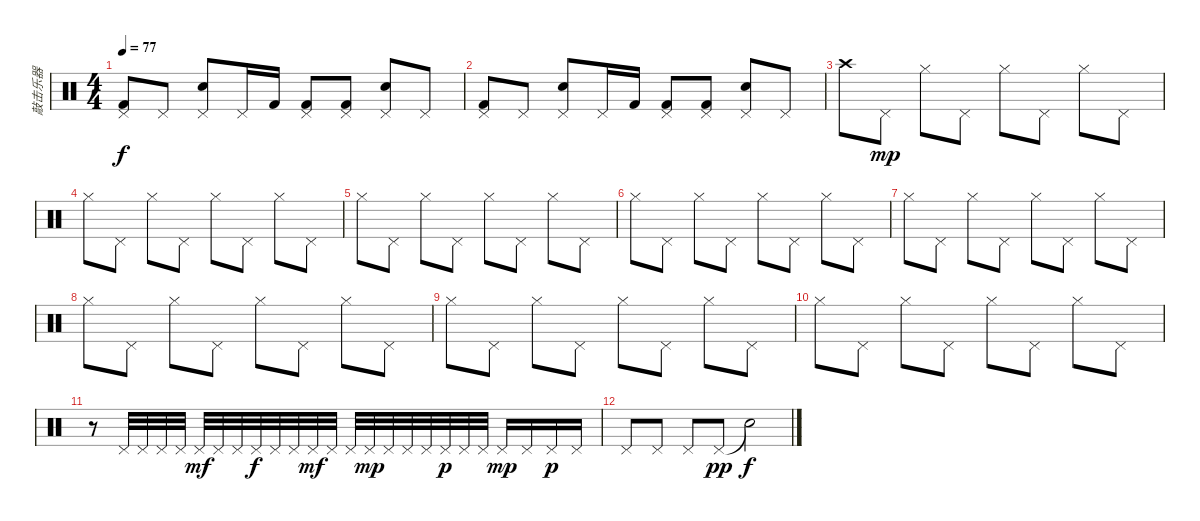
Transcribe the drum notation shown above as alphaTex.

\track ("敲击乐器" "敲击乐器") {instrument percussion}
\staff {score}
\articulation defaults
\ts (4 4)
\tempo 77
\clef neutral
\ks c
("Pedal Hi-Hat (hit)" "Kick (hit) 2").8{dy f} "Pedal Hi-Hat (hit)".8 ("Pedal Hi-Hat (hit)" "Snare (hit) 2").8 "Pedal Hi-Hat (hit)".16 "Kick (hit) 2".16 ("Pedal Hi-Hat (hit)" "Kick (hit) 2").8 ("Pedal Hi-Hat (hit)" "Kick (hit) 2").8 ("Pedal Hi-Hat (hit)" "Snare (hit) 2").8 "Pedal Hi-Hat (hit)".8 |
("Pedal Hi-Hat (hit)" "Kick (hit) 2").8 "Pedal Hi-Hat (hit)".8 ("Pedal Hi-Hat (hit)" "Snare (hit) 2").8 "Pedal Hi-Hat (hit)".16 "Kick (hit) 2".16 ("Pedal Hi-Hat (hit)" "Kick (hit) 2").8 ("Pedal Hi-Hat (hit)" "Kick (hit) 2").8 ("Pedal Hi-Hat (hit)" "Snare (hit) 2").8 "Pedal Hi-Hat (hit)".8 |
"Crash high (hit)".8 "Pedal Hi-Hat (hit)".8{dy mp} "Hi-Hat (closed)".8 "Pedal Hi-Hat (hit)".8 "Hi-Hat (closed)".8 "Pedal Hi-Hat (hit)".8 "Hi-Hat (closed)".8 "Pedal Hi-Hat (hit)".8 |
"Hi-Hat (closed)".8 "Pedal Hi-Hat (hit)".8 "Hi-Hat (closed)".8 "Pedal Hi-Hat (hit)".8 "Hi-Hat (closed)".8 "Pedal Hi-Hat (hit)".8 "Hi-Hat (closed)".8 "Pedal Hi-Hat (hit)".8 |
"Hi-Hat (closed)".8 "Pedal Hi-Hat (hit)".8 "Hi-Hat (closed)".8 "Pedal Hi-Hat (hit)".8 "Hi-Hat (closed)".8 "Pedal Hi-Hat (hit)".8 "Hi-Hat (closed)".8 "Pedal Hi-Hat (hit)".8 |
"Hi-Hat (closed)".8 "Pedal Hi-Hat (hit)".8 "Hi-Hat (closed)".8 "Pedal Hi-Hat (hit)".8 "Hi-Hat (closed)".8 "Pedal Hi-Hat (hit)".8 "Hi-Hat (closed)".8 "Pedal Hi-Hat (hit)".8 |
"Hi-Hat (closed)".8 "Pedal Hi-Hat (hit)".8 "Hi-Hat (closed)".8 "Pedal Hi-Hat (hit)".8 "Hi-Hat (closed)".8 "Pedal Hi-Hat (hit)".8 "Hi-Hat (closed)".8 "Pedal Hi-Hat (hit)".8 |
"Hi-Hat (closed)".8 "Pedal Hi-Hat (hit)".8 "Hi-Hat (closed)".8 "Pedal Hi-Hat (hit)".8 "Hi-Hat (closed)".8 "Pedal Hi-Hat (hit)".8 "Hi-Hat (closed)".8 "Pedal Hi-Hat (hit)".8 |
"Hi-Hat (closed)".8 "Pedal Hi-Hat (hit)".8 "Hi-Hat (closed)".8 "Pedal Hi-Hat (hit)".8 "Hi-Hat (closed)".8 "Pedal Hi-Hat (hit)".8 "Hi-Hat (closed)".8 "Pedal Hi-Hat (hit)".8 |
"Hi-Hat (closed)".8 "Pedal Hi-Hat (hit)".8 "Hi-Hat (closed)".8 "Pedal Hi-Hat (hit)".8 "Hi-Hat (closed)".8 "Pedal Hi-Hat (hit)".8 "Hi-Hat (closed)".8 "Pedal Hi-Hat (hit)".8 |
r.8 "Pedal Hi-Hat (hit)".32 "Pedal Hi-Hat (hit)".32 "Pedal Hi-Hat (hit)".32 "Pedal Hi-Hat (hit)".32 "Pedal Hi-Hat (hit)".32{dy mf} "Pedal Hi-Hat (hit)".32 "Pedal Hi-Hat (hit)".32 "Pedal Hi-Hat (hit)".32{dy f} "Pedal Hi-Hat (hit)".32 "Pedal Hi-Hat (hit)".32 "Pedal Hi-Hat (hit)".32{dy mf} "Pedal Hi-Hat (hit)".32 "Pedal Hi-Hat (hit)".32 "Pedal Hi-Hat (hit)".32{dy mp} "Pedal Hi-Hat (hit)".32 "Pedal Hi-Hat (hit)".32 "Pedal Hi-Hat (hit)".32 "Pedal Hi-Hat (hit)".32{dy p} "Pedal Hi-Hat (hit)".32 "Pedal Hi-Hat (hit)".32 "Pedal Hi-Hat (hit)".16{dy mp} "Pedal Hi-Hat (hit)".16 "Pedal Hi-Hat (hit)".16{dy p} "Pedal Hi-Hat (hit)".16 |
"Pedal Hi-Hat (hit)".8 "Pedal Hi-Hat (hit)".8 "Pedal Hi-Hat (hit)".8 "Pedal Hi-Hat (hit)".8{dy pp} "Snare (hit)"{t}.2{dy f}
